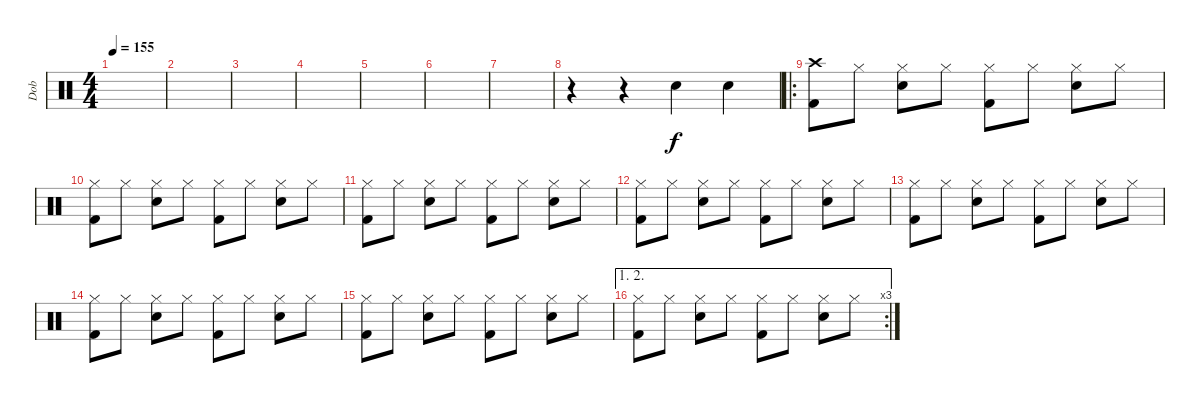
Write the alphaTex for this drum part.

\track ("Dob" "Dob") {instrument percussion}
\staff {score}
\articulation defaults
\ts (4 4)
\tempo 155
\clef neutral
\ks c
|
|
|
|
|
|
|
r.4 r.4 "Snare (hit) 2".4 "Snare (hit) 2".4 |
\ro
("Crash high (hit)" "Kick (hit) 2").8 "Hi-Hat (closed)".8 ("Hi-Hat (closed)" "Snare (hit) 2").8 "Hi-Hat (closed)".8 ("Hi-Hat (closed)" "Kick (hit) 2").8 "Hi-Hat (closed)".8 ("Hi-Hat (closed)" "Snare (hit) 2").8 "Hi-Hat (closed)".8 |
("Hi-Hat (closed)" "Kick (hit) 2").8 "Hi-Hat (closed)".8 ("Hi-Hat (closed)" "Snare (hit) 2").8 "Hi-Hat (closed)".8 ("Hi-Hat (closed)" "Kick (hit) 2").8 "Hi-Hat (closed)".8 ("Hi-Hat (closed)" "Snare (hit) 2").8 "Hi-Hat (closed)".8 |
("Hi-Hat (closed)" "Kick (hit) 2").8 "Hi-Hat (closed)".8 ("Hi-Hat (closed)" "Snare (hit) 2").8 "Hi-Hat (closed)".8 ("Hi-Hat (closed)" "Kick (hit) 2").8 "Hi-Hat (closed)".8 ("Hi-Hat (closed)" "Snare (hit) 2").8 "Hi-Hat (closed)".8 |
("Hi-Hat (closed)" "Kick (hit) 2").8 "Hi-Hat (closed)".8 ("Hi-Hat (closed)" "Snare (hit) 2").8 "Hi-Hat (closed)".8 ("Hi-Hat (closed)" "Kick (hit) 2").8 "Hi-Hat (closed)".8 ("Hi-Hat (closed)" "Snare (hit) 2").8 "Hi-Hat (closed)".8 |
("Hi-Hat (closed)" "Kick (hit) 2").8 "Hi-Hat (closed)".8 ("Hi-Hat (closed)" "Snare (hit) 2").8 "Hi-Hat (closed)".8 ("Hi-Hat (closed)" "Kick (hit) 2").8 "Hi-Hat (closed)".8 ("Hi-Hat (closed)" "Snare (hit) 2").8 "Hi-Hat (closed)".8 |
("Hi-Hat (closed)" "Kick (hit) 2").8 "Hi-Hat (closed)".8 ("Hi-Hat (closed)" "Snare (hit) 2").8 "Hi-Hat (closed)".8 ("Hi-Hat (closed)" "Kick (hit) 2").8 "Hi-Hat (closed)".8 ("Hi-Hat (closed)" "Snare (hit) 2").8 "Hi-Hat (closed)".8 |
("Hi-Hat (closed)" "Kick (hit) 2").8 "Hi-Hat (closed)".8 ("Hi-Hat (closed)" "Snare (hit) 2").8 "Hi-Hat (closed)".8 ("Hi-Hat (closed)" "Kick (hit) 2").8 "Hi-Hat (closed)".8 ("Hi-Hat (closed)" "Snare (hit) 2").8 "Hi-Hat (closed)".8 |
\ae (1 2)
\rc 3
("Hi-Hat (closed)" "Kick (hit) 2").8 "Hi-Hat (closed)".8 ("Hi-Hat (closed)" "Snare (hit) 2").8 "Hi-Hat (closed)".8 ("Hi-Hat (closed)" "Kick (hit) 2").8 "Hi-Hat (closed)".8 ("Hi-Hat (closed)" "Snare (hit) 2").8 "Hi-Hat (closed)".8
